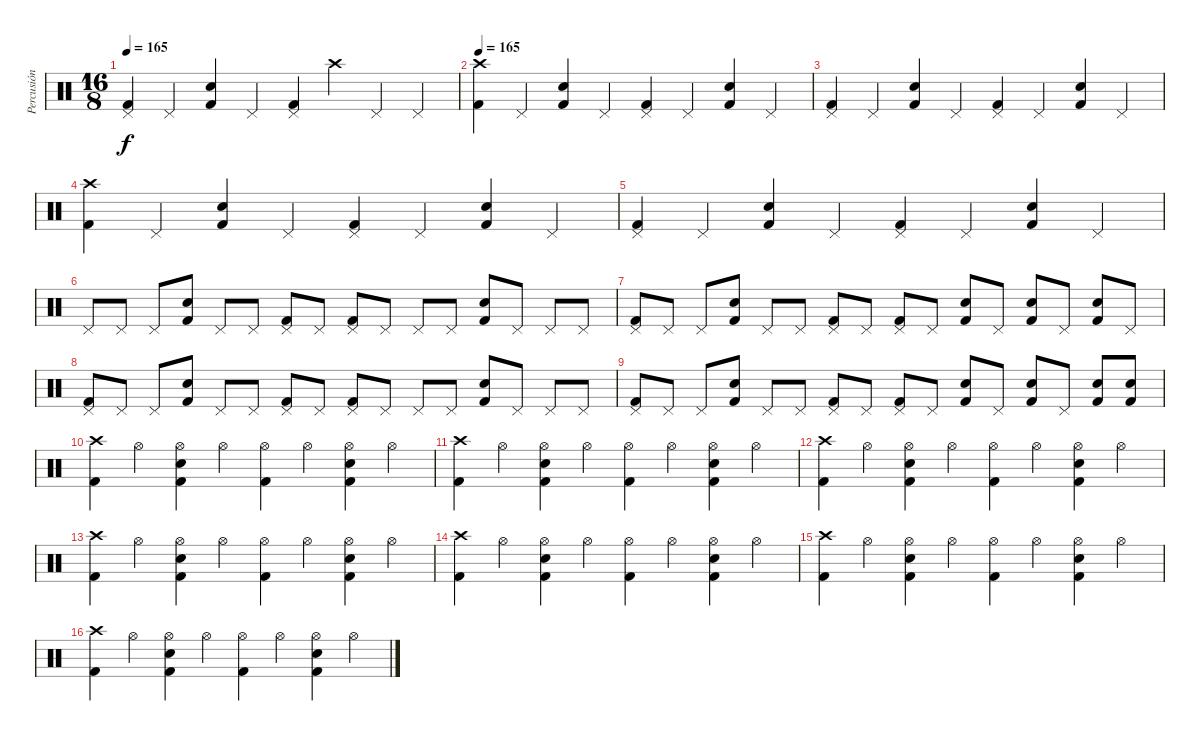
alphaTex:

\track ("Percusión" "Percusión") {instrument percussion}
\staff {score}
\articulation defaults
\ts (16 8)
\tempo 165
\clef neutral
\ks c
("Pedal Hi-Hat (hit)" "Kick (hit) 2").4{dy f} "Pedal Hi-Hat (hit)".4 ("Electric Snare (hit)" "Kick (hit) 2").4 "Pedal Hi-Hat (hit)".4 ("Pedal Hi-Hat (hit)" "Kick (hit) 2").4 "Crash high (hit)".4 "Pedal Hi-Hat (hit)".4 "Pedal Hi-Hat (hit)".4 |
\tempo 165
("Crash high (hit)" "Kick (hit) 2").4 "Pedal Hi-Hat (hit)".4 ("Electric Snare (hit)" "Kick (hit) 2").4 "Pedal Hi-Hat (hit)".4 ("Pedal Hi-Hat (hit)" "Kick (hit) 2").4 "Pedal Hi-Hat (hit)".4 ("Electric Snare (hit)" "Kick (hit) 2").4 "Pedal Hi-Hat (hit)".4 |
("Pedal Hi-Hat (hit)" "Kick (hit) 2").4 "Pedal Hi-Hat (hit)".4 ("Electric Snare (hit)" "Kick (hit) 2").4 "Pedal Hi-Hat (hit)".4 ("Pedal Hi-Hat (hit)" "Kick (hit) 2").4 "Pedal Hi-Hat (hit)".4 ("Electric Snare (hit)" "Kick (hit) 2").4 "Pedal Hi-Hat (hit)".4 |
("Crash high (hit)" "Kick (hit) 2").4 "Pedal Hi-Hat (hit)".4 ("Electric Snare (hit)" "Kick (hit) 2").4 "Pedal Hi-Hat (hit)".4 ("Pedal Hi-Hat (hit)" "Kick (hit) 2").4 "Pedal Hi-Hat (hit)".4 ("Electric Snare (hit)" "Kick (hit) 2").4 "Pedal Hi-Hat (hit)".4 |
("Pedal Hi-Hat (hit)" "Kick (hit) 2").4 "Pedal Hi-Hat (hit)".4 ("Electric Snare (hit)" "Kick (hit) 2").4 "Pedal Hi-Hat (hit)".4 ("Pedal Hi-Hat (hit)" "Kick (hit) 2").4 "Pedal Hi-Hat (hit)".4 ("Electric Snare (hit)" "Kick (hit) 2").4 "Pedal Hi-Hat (hit)".4 |
"Pedal Hi-Hat (hit)".8 "Pedal Hi-Hat (hit)".8 "Pedal Hi-Hat (hit)".8 ("Electric Snare (hit)" "Kick (hit) 2").8 "Pedal Hi-Hat (hit)".8 "Pedal Hi-Hat (hit)".8 ("Pedal Hi-Hat (hit)" "Kick (hit) 2").8 "Pedal Hi-Hat (hit)".8 ("Pedal Hi-Hat (hit)" "Kick (hit) 2").8 "Pedal Hi-Hat (hit)".8 "Pedal Hi-Hat (hit)".8 "Pedal Hi-Hat (hit)".8 ("Electric Snare (hit)" "Kick (hit) 2").8 "Pedal Hi-Hat (hit)".8 "Pedal Hi-Hat (hit)".8 "Pedal Hi-Hat (hit)".8 |
("Pedal Hi-Hat (hit)" "Kick (hit) 2").8 "Pedal Hi-Hat (hit)".8 "Pedal Hi-Hat (hit)".8 ("Electric Snare (hit)" "Kick (hit) 2").8 "Pedal Hi-Hat (hit)".8 "Pedal Hi-Hat (hit)".8 ("Pedal Hi-Hat (hit)" "Kick (hit) 2").8 "Pedal Hi-Hat (hit)".8 ("Pedal Hi-Hat (hit)" "Kick (hit) 2").8 "Pedal Hi-Hat (hit)".8 ("Electric Snare (hit)" "Kick (hit) 2").8 "Pedal Hi-Hat (hit)".8 ("Electric Snare (hit)" "Kick (hit) 2").8 "Pedal Hi-Hat (hit)".8 ("Electric Snare (hit)" "Kick (hit) 2").8 "Pedal Hi-Hat (hit)".8 |
("Pedal Hi-Hat (hit)" "Kick (hit) 2").8 "Pedal Hi-Hat (hit)".8 "Pedal Hi-Hat (hit)".8 ("Electric Snare (hit)" "Kick (hit) 2").8 "Pedal Hi-Hat (hit)".8 "Pedal Hi-Hat (hit)".8 ("Pedal Hi-Hat (hit)" "Kick (hit) 2").8 "Pedal Hi-Hat (hit)".8 ("Pedal Hi-Hat (hit)" "Kick (hit) 2").8 "Pedal Hi-Hat (hit)".8 "Pedal Hi-Hat (hit)".8 "Pedal Hi-Hat (hit)".8 ("Electric Snare (hit)" "Kick (hit) 2").8 "Pedal Hi-Hat (hit)".8 "Pedal Hi-Hat (hit)".8 "Pedal Hi-Hat (hit)".8 |
("Pedal Hi-Hat (hit)" "Kick (hit) 2").8 "Pedal Hi-Hat (hit)".8 "Pedal Hi-Hat (hit)".8 ("Electric Snare (hit)" "Kick (hit) 2").8 "Pedal Hi-Hat (hit)".8 "Pedal Hi-Hat (hit)".8 ("Pedal Hi-Hat (hit)" "Kick (hit) 2").8 "Pedal Hi-Hat (hit)".8 ("Pedal Hi-Hat (hit)" "Kick (hit) 2").8 "Pedal Hi-Hat (hit)".8 ("Electric Snare (hit)" "Kick (hit) 2").8 "Pedal Hi-Hat (hit)".8 ("Electric Snare (hit)" "Kick (hit) 2").8 "Pedal Hi-Hat (hit)".8 ("Electric Snare (hit)" "Kick (hit) 2").8 ("Electric Snare (hit)" "Kick (hit) 2").8 |
("Crash high (hit)" "Kick (hit) 2").4 "Hi-Hat (open)".4 ("Hi-Hat (open)" "Electric Snare (hit)" "Kick (hit) 2").4 "Hi-Hat (open)".4 ("Hi-Hat (open)" "Kick (hit) 2").4 "Hi-Hat (open)".4 ("Hi-Hat (open)" "Electric Snare (hit)" "Kick (hit) 2").4 "Hi-Hat (open)".4 |
("Crash high (hit)" "Kick (hit) 2").4 "Hi-Hat (open)".4 ("Hi-Hat (open)" "Electric Snare (hit)" "Kick (hit) 2").4 "Hi-Hat (open)".4 ("Hi-Hat (open)" "Kick (hit) 2").4 "Hi-Hat (open)".4 ("Hi-Hat (open)" "Electric Snare (hit)" "Kick (hit) 2").4 "Hi-Hat (open)".4 |
("Crash high (hit)" "Kick (hit) 2").4 "Hi-Hat (open)".4 ("Hi-Hat (open)" "Electric Snare (hit)" "Kick (hit) 2").4 "Hi-Hat (open)".4 ("Hi-Hat (open)" "Kick (hit) 2").4 "Hi-Hat (open)".4 ("Hi-Hat (open)" "Electric Snare (hit)" "Kick (hit) 2").4 "Hi-Hat (open)".4 |
("Crash high (hit)" "Kick (hit) 2").4 "Hi-Hat (open)".4 ("Hi-Hat (open)" "Electric Snare (hit)" "Kick (hit) 2").4 "Hi-Hat (open)".4 ("Hi-Hat (open)" "Kick (hit) 2").4 "Hi-Hat (open)".4 ("Hi-Hat (open)" "Electric Snare (hit)" "Kick (hit) 2").4 "Hi-Hat (open)".4 |
("Crash high (hit)" "Kick (hit) 2").4 "Hi-Hat (open)".4 ("Hi-Hat (open)" "Electric Snare (hit)" "Kick (hit) 2").4 "Hi-Hat (open)".4 ("Hi-Hat (open)" "Kick (hit) 2").4 "Hi-Hat (open)".4 ("Hi-Hat (open)" "Electric Snare (hit)" "Kick (hit) 2").4 "Hi-Hat (open)".4 |
("Crash high (hit)" "Kick (hit) 2").4 "Hi-Hat (open)".4 ("Hi-Hat (open)" "Electric Snare (hit)" "Kick (hit) 2").4 "Hi-Hat (open)".4 ("Hi-Hat (open)" "Kick (hit) 2").4 "Hi-Hat (open)".4 ("Hi-Hat (open)" "Electric Snare (hit)" "Kick (hit) 2").4 "Hi-Hat (open)".4 |
("Crash high (hit)" "Kick (hit) 2").4 "Hi-Hat (open)".4 ("Hi-Hat (open)" "Electric Snare (hit)" "Kick (hit) 2").4 "Hi-Hat (open)".4 ("Hi-Hat (open)" "Kick (hit) 2").4 "Hi-Hat (open)".4 ("Hi-Hat (open)" "Electric Snare (hit)" "Kick (hit) 2").4 "Hi-Hat (open)".4
